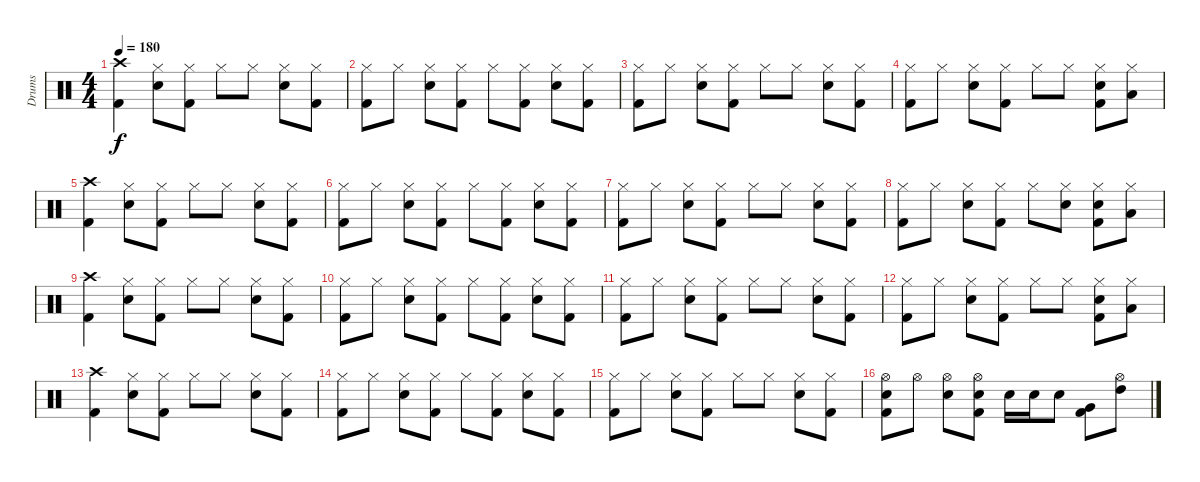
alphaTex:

\track ("Drums" "Drums") {instrument percussion}
\staff {score}
\articulation defaults
\ts (4 4)
\tempo 180
\clef neutral
\ks c
("Crash high (hit)" "Kick (hit) 2").4{dy f} ("Hi-Hat (closed)" "Electric Snare (hit)").8 ("Hi-Hat (closed)" "Kick (hit) 2").8 "Hi-Hat (closed)".8 "Hi-Hat (closed)".8 ("Hi-Hat (closed)" "Electric Snare (hit)").8 ("Hi-Hat (closed)" "Kick (hit) 2").8 |
("Hi-Hat (closed)" "Kick (hit) 2").8 "Hi-Hat (closed)".8 ("Hi-Hat (closed)" "Electric Snare (hit)").8 ("Hi-Hat (closed)" "Kick (hit) 2").8 "Hi-Hat (closed)".8 ("Hi-Hat (closed)" "Kick (hit) 2").8 ("Hi-Hat (closed)" "Electric Snare (hit)").8 ("Hi-Hat (closed)" "Kick (hit) 2").8 |
("Hi-Hat (closed)" "Kick (hit) 2").8 "Hi-Hat (closed)".8 ("Hi-Hat (closed)" "Electric Snare (hit)").8 ("Hi-Hat (closed)" "Kick (hit) 2").8 "Hi-Hat (closed)".8 "Hi-Hat (closed)".8 ("Hi-Hat (closed)" "Electric Snare (hit)").8 ("Hi-Hat (closed)" "Kick (hit) 2").8 |
("Hi-Hat (closed)" "Kick (hit) 2").8 "Hi-Hat (closed)".8 ("Hi-Hat (closed)" "Electric Snare (hit)").8 ("Hi-Hat (closed)" "Kick (hit) 2").8 "Hi-Hat (closed)".8 "Hi-Hat (closed)".8 ("Hi-Hat (closed)" "Electric Snare (hit)" "Kick (hit) 2").8 ("Hi-Hat (closed)" "Low Floor Tom (hit)").8 |
("Crash high (hit)" "Kick (hit) 2").4 ("Hi-Hat (closed)" "Electric Snare (hit)").8 ("Hi-Hat (closed)" "Kick (hit) 2").8 "Hi-Hat (closed)".8 "Hi-Hat (closed)".8 ("Hi-Hat (closed)" "Electric Snare (hit)").8 ("Hi-Hat (closed)" "Kick (hit) 2").8 |
("Hi-Hat (closed)" "Kick (hit) 2").8 "Hi-Hat (closed)".8 ("Hi-Hat (closed)" "Electric Snare (hit)").8 ("Hi-Hat (closed)" "Kick (hit) 2").8 "Hi-Hat (closed)".8 ("Hi-Hat (closed)" "Kick (hit) 2").8 ("Hi-Hat (closed)" "Electric Snare (hit)").8 ("Hi-Hat (closed)" "Kick (hit) 2").8 |
("Hi-Hat (closed)" "Kick (hit) 2").8 "Hi-Hat (closed)".8 ("Hi-Hat (closed)" "Electric Snare (hit)").8 ("Hi-Hat (closed)" "Kick (hit) 2").8 "Hi-Hat (closed)".8 "Hi-Hat (closed)".8 ("Hi-Hat (closed)" "Electric Snare (hit)").8 ("Hi-Hat (closed)" "Kick (hit) 2").8 |
("Hi-Hat (closed)" "Kick (hit) 2").8 "Hi-Hat (closed)".8 ("Hi-Hat (closed)" "Electric Snare (hit)").8 ("Hi-Hat (closed)" "Kick (hit) 2").8 "Hi-Hat (closed)".8 ("Hi-Hat (closed)" "Electric Snare (hit)").8 ("Hi-Hat (closed)" "Electric Snare (hit)" "Kick (hit) 2").8 ("Hi-Hat (closed)" "Low Floor Tom (hit)").8 |
("Crash high (hit)" "Kick (hit) 2").4 ("Hi-Hat (closed)" "Electric Snare (hit)").8 ("Hi-Hat (closed)" "Kick (hit) 2").8 "Hi-Hat (closed)".8 "Hi-Hat (closed)".8 ("Hi-Hat (closed)" "Electric Snare (hit)").8 ("Hi-Hat (closed)" "Kick (hit) 2").8 |
("Hi-Hat (closed)" "Kick (hit) 2").8 "Hi-Hat (closed)".8 ("Hi-Hat (closed)" "Electric Snare (hit)").8 ("Hi-Hat (closed)" "Kick (hit) 2").8 "Hi-Hat (closed)".8 ("Hi-Hat (closed)" "Kick (hit) 2").8 ("Hi-Hat (closed)" "Electric Snare (hit)").8 ("Hi-Hat (closed)" "Kick (hit) 2").8 |
("Hi-Hat (closed)" "Kick (hit) 2").8 "Hi-Hat (closed)".8 ("Hi-Hat (closed)" "Electric Snare (hit)").8 ("Hi-Hat (closed)" "Kick (hit) 2").8 "Hi-Hat (closed)".8 "Hi-Hat (closed)".8 ("Hi-Hat (closed)" "Electric Snare (hit)").8 ("Hi-Hat (closed)" "Kick (hit) 2").8 |
("Hi-Hat (closed)" "Kick (hit) 2").8 "Hi-Hat (closed)".8 ("Hi-Hat (closed)" "Electric Snare (hit)").8 ("Hi-Hat (closed)" "Kick (hit) 2").8 "Hi-Hat (closed)".8 "Hi-Hat (closed)".8 ("Hi-Hat (closed)" "Electric Snare (hit)" "Kick (hit) 2").8 ("Hi-Hat (closed)" "Low Floor Tom (hit)").8 |
("Crash high (hit)" "Kick (hit) 2").4 ("Hi-Hat (closed)" "Electric Snare (hit)").8 ("Hi-Hat (closed)" "Kick (hit) 2").8 "Hi-Hat (closed)".8 "Hi-Hat (closed)".8 ("Hi-Hat (closed)" "Electric Snare (hit)").8 ("Hi-Hat (closed)" "Kick (hit) 2").8 |
("Hi-Hat (closed)" "Kick (hit) 2").8 "Hi-Hat (closed)".8 ("Hi-Hat (closed)" "Electric Snare (hit)").8 ("Hi-Hat (closed)" "Kick (hit) 2").8 "Hi-Hat (closed)".8 ("Hi-Hat (closed)" "Kick (hit) 2").8 ("Hi-Hat (closed)" "Electric Snare (hit)").8 ("Hi-Hat (closed)" "Kick (hit) 2").8 |
("Hi-Hat (closed)" "Kick (hit) 2").8 "Hi-Hat (closed)".8 ("Hi-Hat (closed)" "Electric Snare (hit)").8 ("Hi-Hat (closed)" "Kick (hit) 2").8 "Hi-Hat (closed)".8 "Hi-Hat (closed)".8 ("Hi-Hat (closed)" "Electric Snare (hit)").8 ("Hi-Hat (closed)" "Kick (hit) 2").8 |
("Hi-Hat (open)" "Electric Snare (hit)" "Kick (hit) 2").8 "Hi-Hat (open)".8 ("Hi-Hat (open)" "Electric Snare (hit)").8 ("Hi-Hat (open)" "Electric Snare (hit)" "Kick (hit) 2").8 "Electric Snare (hit)".16 "Electric Snare (hit)".16 "Electric Snare (hit)".8 ("Very Low Tom (hit)" "Kick (hit) 2").8 ("Hi-Hat (open)" "High Tom (hit)").8
